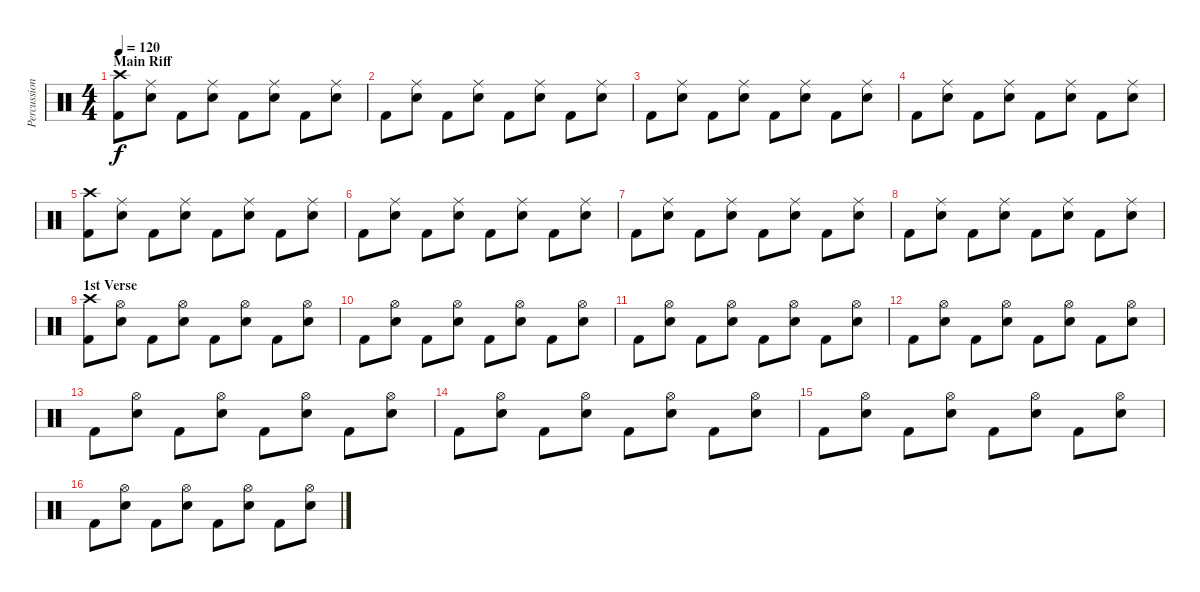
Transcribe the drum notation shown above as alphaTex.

\track ("Percussioni" "Percussion") {instrument percussion}
\staff {score}
\articulation defaults
\ts (4 4)
\section ("" "Main Riff")
\tempo 120
\clef neutral
\ks c
("Crash high (hit)" "Kick (hit) 2").8{dy f} ("Ride (middle)" "Electric Snare (hit)").8 "Kick (hit) 2".8 ("Ride (middle)" "Electric Snare (hit)").8 "Kick (hit) 2".8 ("Ride (middle)" "Electric Snare (hit)").8 "Kick (hit) 2".8 ("Ride (middle)" "Electric Snare (hit)").8 |
"Kick (hit) 2".8 ("Ride (middle)" "Electric Snare (hit)").8 "Kick (hit) 2".8 ("Ride (middle)" "Electric Snare (hit)").8 "Kick (hit) 2".8 ("Ride (middle)" "Electric Snare (hit)").8 "Kick (hit) 2".8 ("Ride (middle)" "Electric Snare (hit)").8 |
"Kick (hit) 2".8 ("Ride (middle)" "Electric Snare (hit)").8 "Kick (hit) 2".8 ("Ride (middle)" "Electric Snare (hit)").8 "Kick (hit) 2".8 ("Ride (middle)" "Electric Snare (hit)").8 "Kick (hit) 2".8 ("Ride (middle)" "Electric Snare (hit)").8 |
"Kick (hit) 2".8 ("Ride (middle)" "Electric Snare (hit)").8 "Kick (hit) 2".8 ("Ride (middle)" "Electric Snare (hit)").8 "Kick (hit) 2".8 ("Ride (middle)" "Electric Snare (hit)").8 "Kick (hit) 2".8 ("Ride (middle)" "Electric Snare (hit)").8 |
("Crash high (hit)" "Kick (hit) 2").8 ("Ride (middle)" "Electric Snare (hit)").8 "Kick (hit) 2".8 ("Ride (middle)" "Electric Snare (hit)").8 "Kick (hit) 2".8 ("Ride (middle)" "Electric Snare (hit)").8 "Kick (hit) 2".8 ("Ride (middle)" "Electric Snare (hit)").8 |
"Kick (hit) 2".8 ("Ride (middle)" "Electric Snare (hit)").8 "Kick (hit) 2".8 ("Ride (middle)" "Electric Snare (hit)").8 "Kick (hit) 2".8 ("Ride (middle)" "Electric Snare (hit)").8 "Kick (hit) 2".8 ("Ride (middle)" "Electric Snare (hit)").8 |
"Kick (hit) 2".8 ("Ride (middle)" "Electric Snare (hit)").8 "Kick (hit) 2".8 ("Ride (middle)" "Electric Snare (hit)").8 "Kick (hit) 2".8 ("Ride (middle)" "Electric Snare (hit)").8 "Kick (hit) 2".8 ("Ride (middle)" "Electric Snare (hit)").8 |
"Kick (hit) 2".8 ("Ride (middle)" "Electric Snare (hit)").8 "Kick (hit) 2".8 ("Ride (middle)" "Electric Snare (hit)").8 "Kick (hit) 2".8 ("Ride (middle)" "Electric Snare (hit)").8 "Kick (hit) 2".8 ("Ride (middle)" "Electric Snare (hit)").8 |
\section ("" "1st Verse")
("Crash high (hit)" "Kick (hit) 2").8 ("Hi-Hat (open)" "Electric Snare (hit)").8 "Kick (hit) 2".8 ("Hi-Hat (open)" "Electric Snare (hit)").8 "Kick (hit) 2".8 ("Hi-Hat (open)" "Electric Snare (hit)").8 "Kick (hit) 2".8 ("Hi-Hat (open)" "Electric Snare (hit)").8 |
"Kick (hit) 2".8 ("Hi-Hat (open)" "Electric Snare (hit)").8 "Kick (hit) 2".8 ("Hi-Hat (open)" "Electric Snare (hit)").8 "Kick (hit) 2".8 ("Hi-Hat (open)" "Electric Snare (hit)").8 "Kick (hit) 2".8 ("Hi-Hat (open)" "Electric Snare (hit)").8 |
"Kick (hit) 2".8 ("Hi-Hat (open)" "Electric Snare (hit)").8 "Kick (hit) 2".8 ("Hi-Hat (open)" "Electric Snare (hit)").8 "Kick (hit) 2".8 ("Hi-Hat (open)" "Electric Snare (hit)").8 "Kick (hit) 2".8 ("Hi-Hat (open)" "Electric Snare (hit)").8 |
"Kick (hit) 2".8 ("Hi-Hat (open)" "Electric Snare (hit)").8 "Kick (hit) 2".8 ("Hi-Hat (open)" "Electric Snare (hit)").8 "Kick (hit) 2".8 ("Hi-Hat (open)" "Electric Snare (hit)").8 "Kick (hit) 2".8 ("Hi-Hat (open)" "Electric Snare (hit)").8 |
"Kick (hit) 2".8 ("Hi-Hat (open)" "Electric Snare (hit)").8 "Kick (hit) 2".8 ("Hi-Hat (open)" "Electric Snare (hit)").8 "Kick (hit) 2".8 ("Hi-Hat (open)" "Electric Snare (hit)").8 "Kick (hit) 2".8 ("Hi-Hat (open)" "Electric Snare (hit)").8 |
"Kick (hit) 2".8 ("Hi-Hat (open)" "Electric Snare (hit)").8 "Kick (hit) 2".8 ("Hi-Hat (open)" "Electric Snare (hit)").8 "Kick (hit) 2".8 ("Hi-Hat (open)" "Electric Snare (hit)").8 "Kick (hit) 2".8 ("Hi-Hat (open)" "Electric Snare (hit)").8 |
"Kick (hit) 2".8 ("Hi-Hat (open)" "Electric Snare (hit)").8 "Kick (hit) 2".8 ("Hi-Hat (open)" "Electric Snare (hit)").8 "Kick (hit) 2".8 ("Hi-Hat (open)" "Electric Snare (hit)").8 "Kick (hit) 2".8 ("Hi-Hat (open)" "Electric Snare (hit)").8 |
"Kick (hit) 2".8 ("Hi-Hat (open)" "Electric Snare (hit)").8 "Kick (hit) 2".8 ("Hi-Hat (open)" "Electric Snare (hit)").8 "Kick (hit) 2".8 ("Hi-Hat (open)" "Electric Snare (hit)").8 "Kick (hit) 2".8 ("Hi-Hat (open)" "Electric Snare (hit)").8
